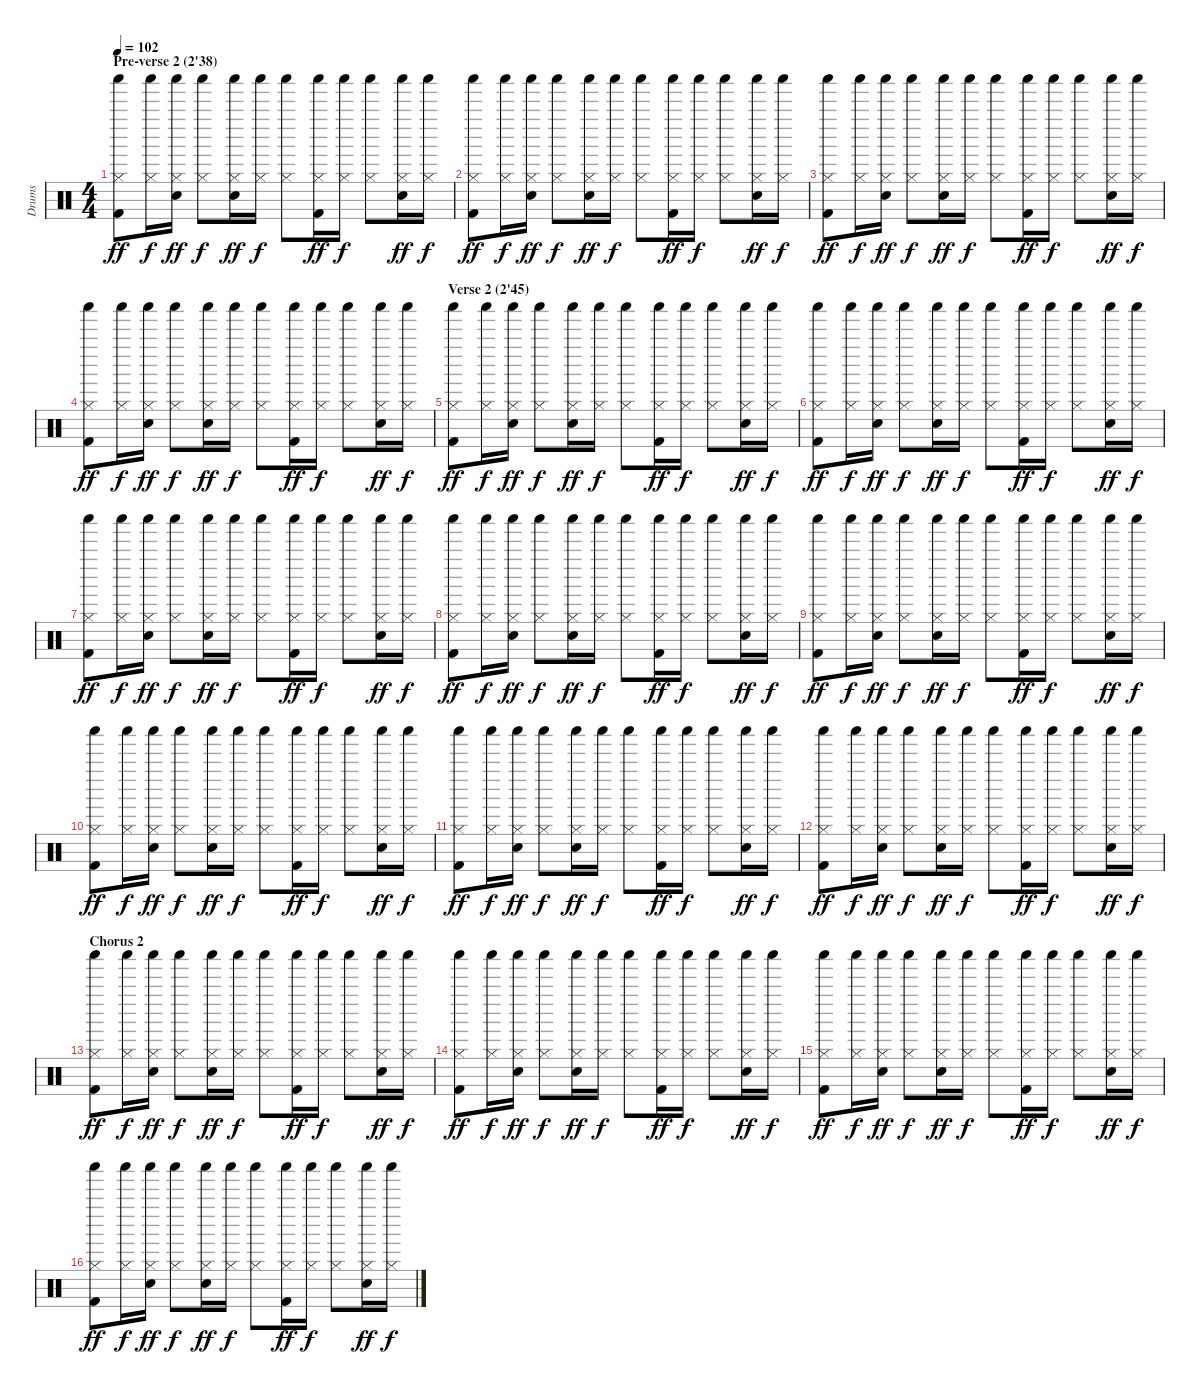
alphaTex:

\track ("Drums" "Drums") {instrument percussion}
\staff {score}
\articulation defaults
\ts (4 4)
\section ("" "Pre-verse 2 (2'38)")
\tempo 102
\clef neutral
\ks c
("Hi-Hat (closed)" "Shaker (hit)" "Kick (hit) 2").8{dy ff} ("Hi-Hat (closed)" "Shaker (hit)").16{dy f} ("Hi-Hat (closed)" "Shaker (hit)" "Snare (hit) 2").16{dy ff} ("Hi-Hat (closed)" "Shaker (hit)").8{dy f} ("Hi-Hat (closed)" "Shaker (hit)" "Snare (hit) 2").16{dy ff} ("Hi-Hat (closed)" "Shaker (hit)").16{dy f} ("Hi-Hat (closed)" "Shaker (hit)").8 ("Hi-Hat (closed)" "Shaker (hit)" "Kick (hit) 2").16{dy ff} ("Hi-Hat (closed)" "Shaker (hit)").16{dy f} ("Hi-Hat (closed)" "Shaker (hit)").8 ("Hi-Hat (closed)" "Shaker (hit)" "Snare (hit) 2").16{dy ff} ("Hi-Hat (closed)" "Shaker (hit)").16{dy f} |
("Hi-Hat (closed)" "Shaker (hit)" "Kick (hit) 2").8{dy ff} ("Hi-Hat (closed)" "Shaker (hit)").16{dy f} ("Hi-Hat (closed)" "Shaker (hit)" "Snare (hit) 2").16{dy ff} ("Hi-Hat (closed)" "Shaker (hit)").8{dy f} ("Hi-Hat (closed)" "Shaker (hit)" "Snare (hit) 2").16{dy ff} ("Hi-Hat (closed)" "Shaker (hit)").16{dy f} ("Hi-Hat (closed)" "Shaker (hit)").8 ("Hi-Hat (closed)" "Shaker (hit)" "Kick (hit) 2").16{dy ff} ("Hi-Hat (closed)" "Shaker (hit)").16{dy f} ("Hi-Hat (closed)" "Shaker (hit)").8 ("Hi-Hat (closed)" "Shaker (hit)" "Snare (hit) 2").16{dy ff} ("Hi-Hat (closed)" "Shaker (hit)").16{dy f} |
("Hi-Hat (closed)" "Shaker (hit)" "Kick (hit) 2").8{dy ff} ("Hi-Hat (closed)" "Shaker (hit)").16{dy f} ("Hi-Hat (closed)" "Shaker (hit)" "Snare (hit) 2").16{dy ff} ("Hi-Hat (closed)" "Shaker (hit)").8{dy f} ("Hi-Hat (closed)" "Shaker (hit)" "Snare (hit) 2").16{dy ff} ("Hi-Hat (closed)" "Shaker (hit)").16{dy f} ("Hi-Hat (closed)" "Shaker (hit)").8 ("Hi-Hat (closed)" "Shaker (hit)" "Kick (hit) 2").16{dy ff} ("Hi-Hat (closed)" "Shaker (hit)").16{dy f} ("Hi-Hat (closed)" "Shaker (hit)").8 ("Hi-Hat (closed)" "Shaker (hit)" "Snare (hit) 2").16{dy ff} ("Hi-Hat (closed)" "Shaker (hit)").16{dy f} |
("Hi-Hat (closed)" "Shaker (hit)" "Kick (hit) 2").8{dy ff} ("Hi-Hat (closed)" "Shaker (hit)").16{dy f} ("Hi-Hat (closed)" "Shaker (hit)" "Snare (hit) 2").16{dy ff} ("Hi-Hat (closed)" "Shaker (hit)").8{dy f} ("Hi-Hat (closed)" "Shaker (hit)" "Snare (hit) 2").16{dy ff} ("Hi-Hat (closed)" "Shaker (hit)").16{dy f} ("Hi-Hat (closed)" "Shaker (hit)").8 ("Hi-Hat (closed)" "Shaker (hit)" "Kick (hit) 2").16{dy ff} ("Hi-Hat (closed)" "Shaker (hit)").16{dy f} ("Hi-Hat (closed)" "Shaker (hit)").8 ("Hi-Hat (closed)" "Shaker (hit)" "Snare (hit) 2").16{dy ff} ("Hi-Hat (closed)" "Shaker (hit)").16{dy f} |
\section ("" "Verse 2 (2'45)")
("Hi-Hat (closed)" "Shaker (hit)" "Kick (hit) 2").8{dy ff} ("Hi-Hat (closed)" "Shaker (hit)").16{dy f} ("Hi-Hat (closed)" "Shaker (hit)" "Snare (hit) 2").16{dy ff} ("Hi-Hat (closed)" "Shaker (hit)").8{dy f} ("Hi-Hat (closed)" "Shaker (hit)" "Snare (hit) 2").16{dy ff} ("Hi-Hat (closed)" "Shaker (hit)").16{dy f} ("Hi-Hat (closed)" "Shaker (hit)").8 ("Hi-Hat (closed)" "Shaker (hit)" "Kick (hit) 2").16{dy ff} ("Hi-Hat (closed)" "Shaker (hit)").16{dy f} ("Hi-Hat (closed)" "Shaker (hit)").8 ("Hi-Hat (closed)" "Shaker (hit)" "Snare (hit) 2").16{dy ff} ("Hi-Hat (closed)" "Shaker (hit)").16{dy f} |
("Hi-Hat (closed)" "Shaker (hit)" "Kick (hit) 2").8{dy ff} ("Hi-Hat (closed)" "Shaker (hit)").16{dy f} ("Hi-Hat (closed)" "Shaker (hit)" "Snare (hit) 2").16{dy ff} ("Hi-Hat (closed)" "Shaker (hit)").8{dy f} ("Hi-Hat (closed)" "Shaker (hit)" "Snare (hit) 2").16{dy ff} ("Hi-Hat (closed)" "Shaker (hit)").16{dy f} ("Hi-Hat (closed)" "Shaker (hit)").8 ("Hi-Hat (closed)" "Shaker (hit)" "Kick (hit) 2").16{dy ff} ("Hi-Hat (closed)" "Shaker (hit)").16{dy f} ("Hi-Hat (closed)" "Shaker (hit)").8 ("Hi-Hat (closed)" "Shaker (hit)" "Snare (hit) 2").16{dy ff} ("Hi-Hat (closed)" "Shaker (hit)").16{dy f} |
("Hi-Hat (closed)" "Shaker (hit)" "Kick (hit) 2").8{dy ff} ("Hi-Hat (closed)" "Shaker (hit)").16{dy f} ("Hi-Hat (closed)" "Shaker (hit)" "Snare (hit) 2").16{dy ff} ("Hi-Hat (closed)" "Shaker (hit)").8{dy f} ("Hi-Hat (closed)" "Shaker (hit)" "Snare (hit) 2").16{dy ff} ("Hi-Hat (closed)" "Shaker (hit)").16{dy f} ("Hi-Hat (closed)" "Shaker (hit)").8 ("Hi-Hat (closed)" "Shaker (hit)" "Kick (hit) 2").16{dy ff} ("Hi-Hat (closed)" "Shaker (hit)").16{dy f} ("Hi-Hat (closed)" "Shaker (hit)").8 ("Hi-Hat (closed)" "Shaker (hit)" "Snare (hit) 2").16{dy ff} ("Hi-Hat (closed)" "Shaker (hit)").16{dy f} |
("Hi-Hat (closed)" "Shaker (hit)" "Kick (hit) 2").8{dy ff} ("Hi-Hat (closed)" "Shaker (hit)").16{dy f} ("Hi-Hat (closed)" "Shaker (hit)" "Snare (hit) 2").16{dy ff} ("Hi-Hat (closed)" "Shaker (hit)").8{dy f} ("Hi-Hat (closed)" "Shaker (hit)" "Snare (hit) 2").16{dy ff} ("Hi-Hat (closed)" "Shaker (hit)").16{dy f} ("Hi-Hat (closed)" "Shaker (hit)").8 ("Hi-Hat (closed)" "Shaker (hit)" "Kick (hit) 2").16{dy ff} ("Hi-Hat (closed)" "Shaker (hit)").16{dy f} ("Hi-Hat (closed)" "Shaker (hit)").8 ("Hi-Hat (closed)" "Shaker (hit)" "Snare (hit) 2").16{dy ff} ("Hi-Hat (closed)" "Shaker (hit)").16{dy f} |
("Hi-Hat (closed)" "Shaker (hit)" "Kick (hit) 2").8{dy ff} ("Hi-Hat (closed)" "Shaker (hit)").16{dy f} ("Hi-Hat (closed)" "Shaker (hit)" "Snare (hit) 2").16{dy ff} ("Hi-Hat (closed)" "Shaker (hit)").8{dy f} ("Hi-Hat (closed)" "Shaker (hit)" "Snare (hit) 2").16{dy ff} ("Hi-Hat (closed)" "Shaker (hit)").16{dy f} ("Hi-Hat (closed)" "Shaker (hit)").8 ("Hi-Hat (closed)" "Shaker (hit)" "Kick (hit) 2").16{dy ff} ("Hi-Hat (closed)" "Shaker (hit)").16{dy f} ("Hi-Hat (closed)" "Shaker (hit)").8 ("Hi-Hat (closed)" "Shaker (hit)" "Snare (hit) 2").16{dy ff} ("Hi-Hat (closed)" "Shaker (hit)").16{dy f} |
("Hi-Hat (closed)" "Shaker (hit)" "Kick (hit) 2").8{dy ff} ("Hi-Hat (closed)" "Shaker (hit)").16{dy f} ("Hi-Hat (closed)" "Shaker (hit)" "Snare (hit) 2").16{dy ff} ("Hi-Hat (closed)" "Shaker (hit)").8{dy f} ("Hi-Hat (closed)" "Shaker (hit)" "Snare (hit) 2").16{dy ff} ("Hi-Hat (closed)" "Shaker (hit)").16{dy f} ("Hi-Hat (closed)" "Shaker (hit)").8 ("Hi-Hat (closed)" "Shaker (hit)" "Kick (hit) 2").16{dy ff} ("Hi-Hat (closed)" "Shaker (hit)").16{dy f} ("Hi-Hat (closed)" "Shaker (hit)").8 ("Hi-Hat (closed)" "Shaker (hit)" "Snare (hit) 2").16{dy ff} ("Hi-Hat (closed)" "Shaker (hit)").16{dy f} |
("Hi-Hat (closed)" "Shaker (hit)" "Kick (hit) 2").8{dy ff} ("Hi-Hat (closed)" "Shaker (hit)").16{dy f} ("Hi-Hat (closed)" "Shaker (hit)" "Snare (hit) 2").16{dy ff} ("Hi-Hat (closed)" "Shaker (hit)").8{dy f} ("Hi-Hat (closed)" "Shaker (hit)" "Snare (hit) 2").16{dy ff} ("Hi-Hat (closed)" "Shaker (hit)").16{dy f} ("Hi-Hat (closed)" "Shaker (hit)").8 ("Hi-Hat (closed)" "Shaker (hit)" "Kick (hit) 2").16{dy ff} ("Hi-Hat (closed)" "Shaker (hit)").16{dy f} ("Hi-Hat (closed)" "Shaker (hit)").8 ("Hi-Hat (closed)" "Shaker (hit)" "Snare (hit) 2").16{dy ff} ("Hi-Hat (closed)" "Shaker (hit)").16{dy f} |
("Hi-Hat (closed)" "Shaker (hit)" "Kick (hit) 2").8{dy ff} ("Hi-Hat (closed)" "Shaker (hit)").16{dy f} ("Hi-Hat (closed)" "Shaker (hit)" "Snare (hit) 2").16{dy ff} ("Hi-Hat (closed)" "Shaker (hit)").8{dy f} ("Hi-Hat (closed)" "Shaker (hit)" "Snare (hit) 2").16{dy ff} ("Hi-Hat (closed)" "Shaker (hit)").16{dy f} ("Hi-Hat (closed)" "Shaker (hit)").8 ("Hi-Hat (closed)" "Shaker (hit)" "Kick (hit) 2").16{dy ff} ("Hi-Hat (closed)" "Shaker (hit)").16{dy f} ("Hi-Hat (closed)" "Shaker (hit)").8 ("Hi-Hat (closed)" "Shaker (hit)" "Snare (hit) 2").16{dy ff} ("Hi-Hat (closed)" "Shaker (hit)").16{dy f} |
\section ("" "Chorus 2")
("Hi-Hat (closed)" "Shaker (hit)" "Kick (hit) 2").8{dy ff} ("Hi-Hat (closed)" "Shaker (hit)").16{dy f} ("Hi-Hat (closed)" "Shaker (hit)" "Snare (hit) 2").16{dy ff} ("Hi-Hat (closed)" "Shaker (hit)").8{dy f} ("Hi-Hat (closed)" "Shaker (hit)" "Snare (hit) 2").16{dy ff} ("Hi-Hat (closed)" "Shaker (hit)").16{dy f} ("Hi-Hat (closed)" "Shaker (hit)").8 ("Hi-Hat (closed)" "Shaker (hit)" "Kick (hit) 2").16{dy ff} ("Hi-Hat (closed)" "Shaker (hit)").16{dy f} ("Hi-Hat (closed)" "Shaker (hit)").8 ("Hi-Hat (closed)" "Shaker (hit)" "Snare (hit) 2").16{dy ff} ("Hi-Hat (closed)" "Shaker (hit)").16{dy f} |
("Hi-Hat (closed)" "Shaker (hit)" "Kick (hit) 2").8{dy ff} ("Hi-Hat (closed)" "Shaker (hit)").16{dy f} ("Hi-Hat (closed)" "Shaker (hit)" "Snare (hit) 2").16{dy ff} ("Hi-Hat (closed)" "Shaker (hit)").8{dy f} ("Hi-Hat (closed)" "Shaker (hit)" "Snare (hit) 2").16{dy ff} ("Hi-Hat (closed)" "Shaker (hit)").16{dy f} ("Hi-Hat (closed)" "Shaker (hit)").8 ("Hi-Hat (closed)" "Shaker (hit)" "Kick (hit) 2").16{dy ff} ("Hi-Hat (closed)" "Shaker (hit)").16{dy f} ("Hi-Hat (closed)" "Shaker (hit)").8 ("Hi-Hat (closed)" "Shaker (hit)" "Snare (hit) 2").16{dy ff} ("Hi-Hat (closed)" "Shaker (hit)").16{dy f} |
("Hi-Hat (closed)" "Shaker (hit)" "Kick (hit) 2").8{dy ff} ("Hi-Hat (closed)" "Shaker (hit)").16{dy f} ("Hi-Hat (closed)" "Shaker (hit)" "Snare (hit) 2").16{dy ff} ("Hi-Hat (closed)" "Shaker (hit)").8{dy f} ("Hi-Hat (closed)" "Shaker (hit)" "Snare (hit) 2").16{dy ff} ("Hi-Hat (closed)" "Shaker (hit)").16{dy f} ("Hi-Hat (closed)" "Shaker (hit)").8 ("Hi-Hat (closed)" "Shaker (hit)" "Kick (hit) 2").16{dy ff} ("Hi-Hat (closed)" "Shaker (hit)").16{dy f} ("Hi-Hat (closed)" "Shaker (hit)").8 ("Hi-Hat (closed)" "Shaker (hit)" "Snare (hit) 2").16{dy ff} ("Hi-Hat (closed)" "Shaker (hit)").16{dy f} |
("Hi-Hat (closed)" "Shaker (hit)" "Kick (hit) 2").8{dy ff} ("Hi-Hat (closed)" "Shaker (hit)").16{dy f} ("Hi-Hat (closed)" "Shaker (hit)" "Snare (hit) 2").16{dy ff} ("Hi-Hat (closed)" "Shaker (hit)").8{dy f} ("Hi-Hat (closed)" "Shaker (hit)" "Snare (hit) 2").16{dy ff} ("Hi-Hat (closed)" "Shaker (hit)").16{dy f} ("Hi-Hat (closed)" "Shaker (hit)").8 ("Hi-Hat (closed)" "Shaker (hit)" "Kick (hit) 2").16{dy ff} ("Hi-Hat (closed)" "Shaker (hit)").16{dy f} ("Hi-Hat (closed)" "Shaker (hit)").8 ("Hi-Hat (closed)" "Shaker (hit)" "Snare (hit) 2").16{dy ff} ("Hi-Hat (closed)" "Shaker (hit)").16{dy f}
